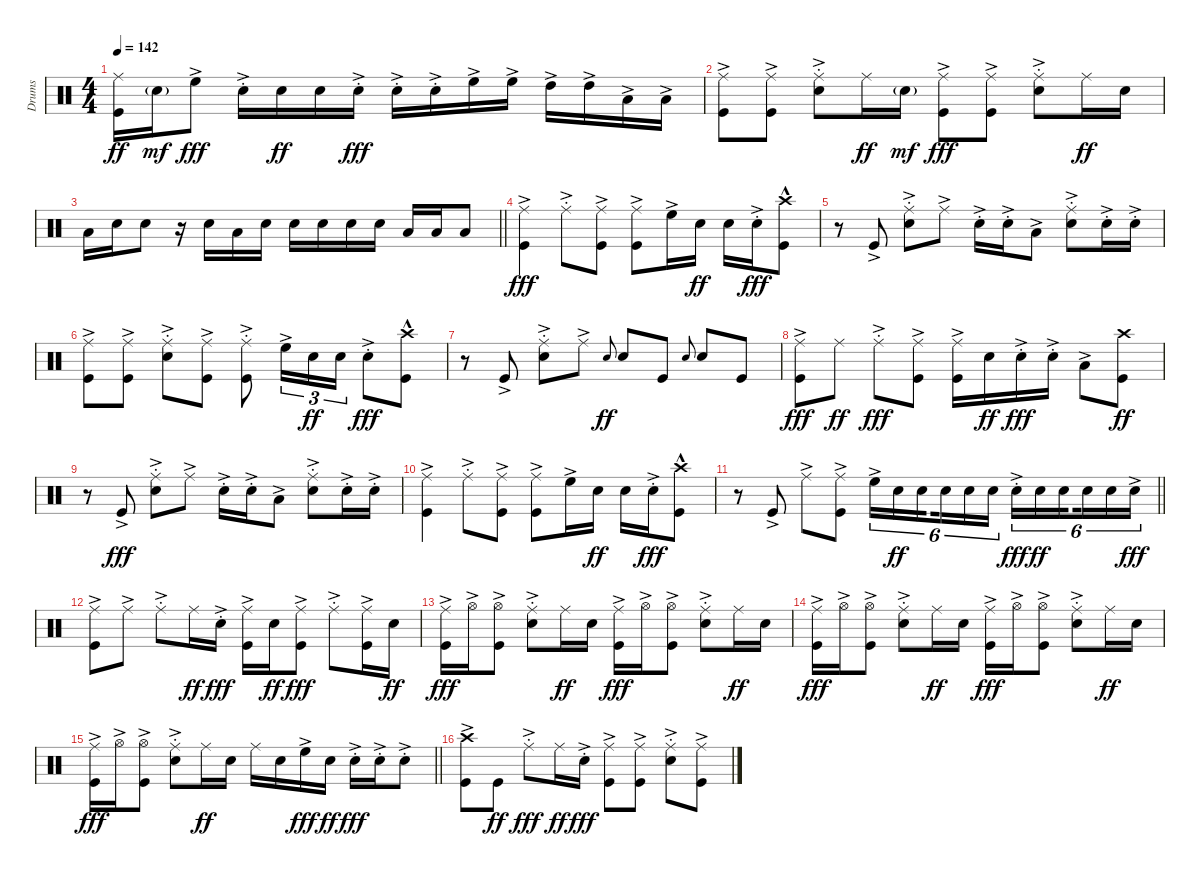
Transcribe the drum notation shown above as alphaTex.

\track ("Drums" "Drums") {instrument percussion}
\staff {score}
\articulation defaults
\ts (4 4)
\tempo 142
\clef neutral
\ks c
("Ride (middle)" "Kick (hit)").16{dy ff} "Snare (hit) 2"{g}.16{dy mf} "High Floor Tom (hit)"{ac}.8{dy fff} "Snare (hit) 2"{ac st}.16 "Snare (hit) 2".16{dy ff} "Snare (hit) 2".16 "Snare (hit) 2"{ac st}.16{dy fff} "Snare (hit) 2"{ac st}.16 "Snare (hit) 2"{ac st}.16 "High Floor Tom (hit)"{ac}.16 "High Floor Tom (hit)"{ac}.16 "High Tom (hit)"{ac}.16 "High Tom (hit)"{ac}.16 "Low Tom (hit)"{ac}.16 "Low Tom (hit)"{ac}.16 |
("Ride (middle)"{ac} "Kick (hit)"{ac}).8 ("Ride (middle)"{ac} "Kick (hit)"{ac}).8 ("Ride (middle)"{ac st} "Snare (hit) 2"{ac st}).8 "Ride (middle)".16{dy ff} "Snare (hit) 2"{g}.16{dy mf} ("Ride (middle)"{ac} "Kick (hit)"{ac}).8{dy fff} ("Ride (middle)"{ac} "Kick (hit)"{ac}).8 ("Ride (middle)"{ac st} "Snare (hit) 2"{ac st}).8 "Ride (middle)".16{dy ff} "Snare (hit) 2".16 |
\barLineRight lightlight "Low Tom (hit)".16 "Snare (hit) 2".16 "Snare (hit) 2".8
r.16 "Snare (hit) 2".16 "Low Tom (hit)".16 "Snare (hit) 2".16 "Snare (hit) 2".16 "Snare (hit) 2".16 "Snare (hit) 2".16 "Snare (hit) 2".16 "Low Tom (hit)".16 "Low Tom (hit)".16 "Low Tom (hit)".8 |
("Ride (middle)"{ac} "Kick (hit)"{ac}).4{dy fff} "Ride (middle)"{ac st}.8 ("Ride (middle)"{ac} "Kick (hit)"{ac}).8 ("Ride (middle)"{ac} "Kick (hit)"{ac}).8 "High Floor Tom (hit)"{ac}.16 "Snare (hit) 2".16{dy ff} "Snare (hit) 2".16 "Snare (hit) 2"{ac st}.16{dy fff} ("Crash high (hit)"{hac} "Kick (hit)"{hac}).8 |
r.8 "Kick (hit)"{ac}.8 ("Ride (middle)"{ac st} "Snare (hit) 2"{ac st}).8 "Ride (middle)"{ac}.8 "Snare (hit) 2"{ac st}.16 "Snare (hit) 2"{ac st}.16 "Low Tom (hit)"{ac}.8 ("Ride (middle)"{ac st} "Snare (hit) 2"{ac st}).8 "Snare (hit) 2"{ac st}.16 "Snare (hit) 2"{ac st}.16 |
("Ride (middle)"{ac} "Kick (hit)"{ac}).8 ("Ride (middle)"{ac} "Kick (hit)"{ac}).8 ("Ride (middle)"{ac st} "Snare (hit) 2"{ac st}).8 ("Ride (middle)"{ac} "Kick (hit)"{ac}).8 ("Ride (middle)"{ac st} "Kick (hit)"{ac st}).8 "High Floor Tom (hit)"{ac}.16{tu (3 2)} "Snare (hit) 2".16{tu (3 2) dy ff} "Snare (hit) 2".16{tu (3 2)} "Snare (hit) 2"{ac st}.8{dy fff} ("Crash high (hit)"{hac} "Kick (hit)"{hac}).8 |
r.8 "Kick (hit)"{ac}.8 ("Ride (middle)"{ac st} "Snare (hit) 2"{ac st}).8 "Ride (middle)"{ac}.8 "Snare (hit) 2"{h}.8{gr onbeat dy ff} "Snare (hit) 2".8 "Kick (hit)".8 "Snare (hit) 2"{h}.8{gr onbeat} "Snare (hit) 2".8 "Kick (hit)".8 |
("Ride (middle)"{ac} "Kick (hit)"{ac}).8{dy fff} "Ride (middle)".8{dy ff} "Ride (middle)"{ac st}.8{dy fff} ("Ride (middle)"{ac} "Kick (hit)"{ac}).8 ("Ride (middle)"{ac} "Kick (hit)"{ac}).16 "Snare (hit) 2".16{dy ff} "Snare (hit) 2"{ac st}.16{dy fff} "Snare (hit) 2"{ac st}.16 "Low Tom (hit)"{ac}.8 ("Crash high (hit)" "Kick (hit)").8{dy ff} |
r.8 "Kick (hit)"{ac}.8{dy fff} ("Ride (middle)"{ac st} "Snare (hit) 2"{ac st}).8 "Ride (middle)"{ac}.8 "Snare (hit) 2"{ac st}.16 "Snare (hit) 2"{ac st}.16 "Low Tom (hit)"{ac}.8 ("Ride (middle)"{ac st} "Snare (hit) 2"{ac st}).8 "Snare (hit) 2"{ac st}.16 "Snare (hit) 2"{ac st}.16 |
("Ride (middle)"{ac} "Kick (hit)"{ac}).4 "Ride (middle)"{ac st}.8 ("Ride (middle)"{ac} "Kick (hit)"{ac}).8 ("Ride (middle)"{ac} "Kick (hit)"{ac}).8 "High Floor Tom (hit)"{ac}.16 "Snare (hit) 2".16{dy ff} "Snare (hit) 2".16 "Snare (hit) 2"{ac st}.16{dy fff} ("Crash high (hit)"{hac} "Kick (hit)"{hac}).8 |
\barLineRight lightlight
r.8 "Kick (hit)"{ac}.8 "Ride (middle)"{ac}.8 ("Ride (middle)"{ac} "Kick (hit)"{ac}).8 "High Floor Tom (hit)"{ac}.16{tu (6 4)} "Snare (hit) 2".16{tu (6 4) dy ff} "Snare (hit) 2".16{tu (6 4) beam splitsecondary} "Snare (hit) 2".16{tu (6 4)} "Snare (hit) 2".16{tu (6 4)} "Snare (hit) 2".16{tu (6 4)} "Snare (hit) 2"{ac st}.16{tu (6 4) dy fff} "Snare (hit) 2".16{tu (6 4) dy ff} "Snare (hit) 2".16{tu (6 4) beam splitsecondary} "Snare (hit) 2".16{tu (6 4)} "Snare (hit) 2".16{tu (6 4)} "Snare (hit) 2"{ac}.16{tu (6 4) dy fff} |
("Ride (middle)"{ac} "Kick (hit)"{ac}).8 "Ride (middle)"{ac}.8 "Ride (middle)"{ac st}.8 "Ride (middle)".16{dy ff} "Snare (hit) 2"{ac st}.16{dy fff} ("Ride (middle)"{ac} "Kick (hit)"{ac}).16 "Snare (hit) 2".16{dy ff} ("Ride (middle)"{ac} "Kick (hit)"{ac}).8{dy fff} "Ride (middle)"{ac st}.8 ("Ride (middle)"{ac} "Kick (hit)"{ac}).16 "Snare (hit) 2".16{dy ff} |
("Ride (middle)"{ac} "Kick (hit)"{ac}).16{dy fff} "Hi-Hat (open)"{ac}.16 ("Hi-Hat (open)"{ac} "Kick (hit)"{ac}).8 ("Ride (middle)"{ac st} "Snare (hit) 2"{ac st}).8 "Ride (middle)".16{dy ff} "Snare (hit) 2".16 ("Ride (middle)"{ac} "Kick (hit)"{ac}).16{dy fff} "Hi-Hat (open)"{ac}.16 ("Hi-Hat (open)"{ac} "Kick (hit)"{ac}).8 ("Ride (middle)"{ac st} "Snare (hit) 2"{ac st}).8 "Ride (middle)".16{dy ff} "Snare (hit) 2".16 |
("Ride (middle)"{ac} "Kick (hit)"{ac}).16{dy fff} "Hi-Hat (open)"{ac}.16 ("Hi-Hat (open)"{ac} "Kick (hit)"{ac}).8 ("Ride (middle)"{ac st} "Snare (hit) 2"{ac st}).8 "Ride (middle)".16{dy ff} "Snare (hit) 2".16 ("Ride (middle)"{ac} "Kick (hit)"{ac}).16{dy fff} "Hi-Hat (open)"{ac}.16 ("Hi-Hat (open)"{ac} "Kick (hit)"{ac}).8 ("Ride (middle)"{ac st} "Snare (hit) 2"{ac st}).8 "Ride (middle)".16{dy ff} "Snare (hit) 2".16 |
\barLineRight lightlight
("Ride (middle)"{ac} "Kick (hit)"{ac}).16{dy fff} "Hi-Hat (open)"{ac}.16 ("Hi-Hat (open)"{ac} "Kick (hit)"{ac}).8 ("Ride (middle)"{ac st} "Snare (hit) 2"{ac st}).8 "Ride (middle)".16{dy ff} "Snare (hit) 2".16 "Ride (middle)".16 "Snare (hit) 2".16 "High Floor Tom (hit)"{ac}.16{dy fff} "Snare (hit) 2".16{dy ff} "Snare (hit) 2"{ac st}.16{dy fff} "Snare (hit) 2"{ac st}.16 "Snare (hit) 2"{ac st}.8 |
("Crash high (hit)"{ac} "Kick (hit)"{ac}).8 "Kick (hit)".8{dy ff} "Ride (middle)"{ac st}.8{dy fff} "Ride (middle)".16{dy ff} "Snare (hit) 2"{ac st}.16{dy fff} ("Ride (middle)"{ac} "Kick (hit)"{ac}).8 ("Ride (middle)"{ac} "Kick (hit)"{ac}).8 ("Ride (middle)"{ac st} "Snare (hit) 2"{ac st}).8 ("Ride (middle)"{ac} "Kick (hit)"{ac}).8
